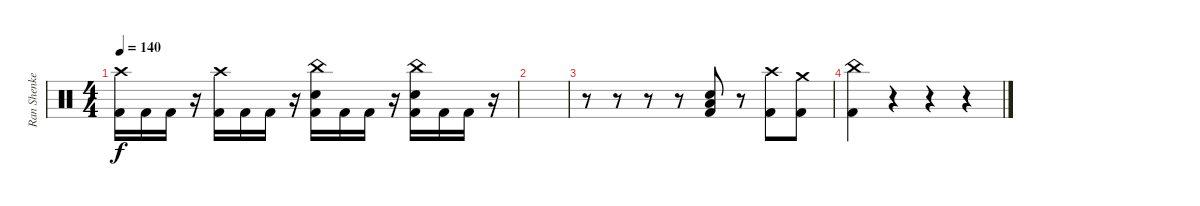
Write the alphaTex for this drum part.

\track ("Ran Shenkerman" "Ran Shenke") {instrument percussion}
\staff {score}
\articulation defaults
\ts (4 4)
\tempo 140
\clef neutral
\ks c
("Crash high (hit)" "Kick (hit) 2").16{dy f} "Kick (hit) 2".16 "Kick (hit) 2".16 r.16 ("Crash high (hit)" "Kick (hit) 2").16 "Kick (hit) 2".16 "Kick (hit) 2".16 r.16 ("Snare (hit) 2" "China (hit)" "Kick (hit) 2").16 "Kick (hit) 2".16 "Kick (hit) 2".16 r.16 ("Snare (hit) 2" "China (hit)" "Kick (hit) 2").16 "Kick (hit) 2".16 "Kick (hit) 2".16 r.16 |
|
r.8 r.8 r.8 r.8 ("Snare (hit) 2" "Low Floor Tom (hit)" "Kick (hit) 2").8 r.8 ("Crash high (hit)" "Kick (hit) 2").8 ("Crash medium (hit)" "Kick (hit) 2").8 |
("China (hit)" "Kick (hit) 2").4 r.4 r.4 r.4
